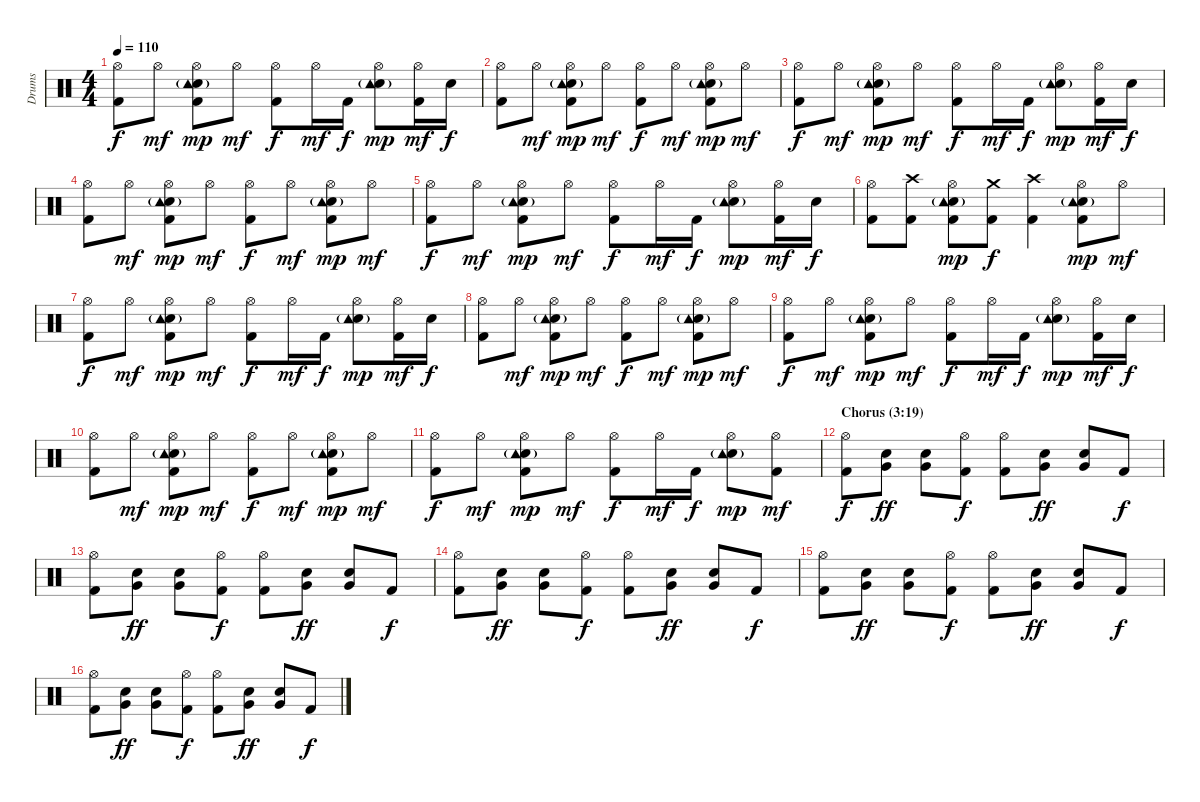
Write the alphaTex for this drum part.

\track ("Drums" "Drums") {instrument percussion}
\staff {score}
\articulation defaults
\ts (4 4)
\tempo 110
\clef neutral
\ks c
("Hi-Hat (open)" "Kick (hit) 2").8{dy f} "Hi-Hat (open)".8{dy mf} ("Hi-Hat (open)" "Snare (hit) 2" "Tambourine (hit)"{g} "Kick (hit) 2").8{dy mp} "Hi-Hat (open)".8{dy mf} ("Hi-Hat (open)" "Kick (hit) 2").8{dy f} "Hi-Hat (open)".16{dy mf} "Kick (hit) 2".16{dy f} ("Hi-Hat (open)" "Snare (hit) 2" "Tambourine (hit)"{g}).8{dy mp} ("Hi-Hat (open)" "Kick (hit) 2").16{dy mf} "Snare (hit) 2".16{dy f} |
("Hi-Hat (open)" "Kick (hit) 2").8 "Hi-Hat (open)".8{dy mf} ("Hi-Hat (open)" "Snare (hit) 2" "Tambourine (hit)"{g} "Kick (hit) 2").8{dy mp} "Hi-Hat (open)".8{dy mf} ("Hi-Hat (open)" "Kick (hit) 2").8{dy f} "Hi-Hat (open)".8{dy mf} ("Hi-Hat (open)" "Snare (hit) 2" "Tambourine (hit)"{g} "Kick (hit) 2").8{dy mp} "Hi-Hat (open)".8{dy mf} |
("Hi-Hat (open)" "Kick (hit) 2").8{dy f} "Hi-Hat (open)".8{dy mf} ("Hi-Hat (open)" "Snare (hit) 2" "Tambourine (hit)"{g} "Kick (hit) 2").8{dy mp} "Hi-Hat (open)".8{dy mf} ("Hi-Hat (open)" "Kick (hit) 2").8{dy f} "Hi-Hat (open)".16{dy mf} "Kick (hit) 2".16{dy f} ("Hi-Hat (open)" "Snare (hit) 2" "Tambourine (hit)"{g}).8{dy mp} ("Hi-Hat (open)" "Kick (hit) 2").16{dy mf} "Snare (hit) 2".16{dy f} |
("Hi-Hat (open)" "Kick (hit) 2").8 "Hi-Hat (open)".8{dy mf} ("Hi-Hat (open)" "Snare (hit) 2" "Tambourine (hit)"{g} "Kick (hit) 2").8{dy mp} "Hi-Hat (open)".8{dy mf} ("Hi-Hat (open)" "Kick (hit) 2").8{dy f} "Hi-Hat (open)".8{dy mf} ("Hi-Hat (open)" "Snare (hit) 2" "Tambourine (hit)"{g} "Kick (hit) 2").8{dy mp} "Hi-Hat (open)".8{dy mf} |
("Hi-Hat (open)" "Kick (hit) 2").8{dy f} "Hi-Hat (open)".8{dy mf} ("Hi-Hat (open)" "Snare (hit) 2" "Tambourine (hit)"{g} "Kick (hit) 2").8{dy mp} "Hi-Hat (open)".8{dy mf} ("Hi-Hat (open)" "Kick (hit) 2").8{dy f} "Hi-Hat (open)".16{dy mf} "Kick (hit) 2".16{dy f} ("Hi-Hat (open)" "Snare (hit) 2" "Tambourine (hit)"{g}).8{dy mp} ("Hi-Hat (open)" "Kick (hit) 2").16{dy mf} "Snare (hit) 2".16{dy f} |
("Hi-Hat (open)" "Kick (hit) 2").8 ("Crash high (hit)" "Kick (hit) 2").8 ("Hi-Hat (open)" "Snare (hit) 2" "Tambourine (hit)"{g} "Kick (hit) 2").8{dy mp} ("Crash medium (hit)" "Kick (hit) 2").8{dy f} ("Crash high (hit)" "Kick (hit) 2").4 ("Hi-Hat (open)" "Snare (hit) 2" "Tambourine (hit)"{g} "Kick (hit) 2").8{dy mp} "Hi-Hat (open)".8{dy mf} |
("Hi-Hat (open)" "Kick (hit) 2").8{dy f} "Hi-Hat (open)".8{dy mf} ("Hi-Hat (open)" "Snare (hit) 2" "Tambourine (hit)"{g} "Kick (hit) 2").8{dy mp} "Hi-Hat (open)".8{dy mf} ("Hi-Hat (open)" "Kick (hit) 2").8{dy f} "Hi-Hat (open)".16{dy mf} "Kick (hit) 2".16{dy f} ("Hi-Hat (open)" "Snare (hit) 2" "Tambourine (hit)"{g}).8{dy mp} ("Hi-Hat (open)" "Kick (hit) 2").16{dy mf} "Snare (hit) 2".16{dy f} |
("Hi-Hat (open)" "Kick (hit) 2").8 "Hi-Hat (open)".8{dy mf} ("Hi-Hat (open)" "Snare (hit) 2" "Tambourine (hit)"{g} "Kick (hit) 2").8{dy mp} "Hi-Hat (open)".8{dy mf} ("Hi-Hat (open)" "Kick (hit) 2").8{dy f} "Hi-Hat (open)".8{dy mf} ("Hi-Hat (open)" "Snare (hit) 2" "Tambourine (hit)"{g} "Kick (hit) 2").8{dy mp} "Hi-Hat (open)".8{dy mf} |
("Hi-Hat (open)" "Kick (hit) 2").8{dy f} "Hi-Hat (open)".8{dy mf} ("Hi-Hat (open)" "Snare (hit) 2" "Tambourine (hit)"{g} "Kick (hit) 2").8{dy mp} "Hi-Hat (open)".8{dy mf} ("Hi-Hat (open)" "Kick (hit) 2").8{dy f} "Hi-Hat (open)".16{dy mf} "Kick (hit) 2".16{dy f} ("Hi-Hat (open)" "Snare (hit) 2" "Tambourine (hit)"{g}).8{dy mp} ("Hi-Hat (open)" "Kick (hit) 2").16{dy mf} "Snare (hit) 2".16{dy f} |
("Hi-Hat (open)" "Kick (hit) 2").8 "Hi-Hat (open)".8{dy mf} ("Hi-Hat (open)" "Snare (hit) 2" "Tambourine (hit)"{g} "Kick (hit) 2").8{dy mp} "Hi-Hat (open)".8{dy mf} ("Hi-Hat (open)" "Kick (hit) 2").8{dy f} "Hi-Hat (open)".8{dy mf} ("Hi-Hat (open)" "Snare (hit) 2" "Tambourine (hit)"{g} "Kick (hit) 2").8{dy mp} "Hi-Hat (open)".8{dy mf} |
("Hi-Hat (open)" "Kick (hit) 2").8{dy f} "Hi-Hat (open)".8{dy mf} ("Hi-Hat (open)" "Snare (hit) 2" "Tambourine (hit)"{g} "Kick (hit) 2").8{dy mp} "Hi-Hat (open)".8{dy mf} ("Hi-Hat (open)" "Kick (hit) 2").8{dy f} "Hi-Hat (open)".16{dy mf} "Kick (hit) 2".16{dy f} ("Hi-Hat (open)" "Snare (hit) 2" "Tambourine (hit)"{g}).8{dy mp} ("Hi-Hat (open)" "Kick (hit) 2").8{dy mf} |
\section ("" "Chorus (3:19)")
("Hi-Hat (open)" "Kick (hit) 2").8{dy f} ("Snare (hit) 2" "Very Low Tom (hit)").8{dy ff} ("Snare (hit) 2" "Very Low Tom (hit)").8 ("Hi-Hat (open)" "Kick (hit) 2").8{dy f} ("Hi-Hat (open)" "Kick (hit) 2").8 ("Snare (hit) 2" "Very Low Tom (hit)").8{dy ff} ("Snare (hit) 2" "Very Low Tom (hit)").8 "Kick (hit) 2".8{dy f} |
("Hi-Hat (open)" "Kick (hit) 2").8 ("Snare (hit) 2" "Very Low Tom (hit)").8{dy ff} ("Snare (hit) 2" "Very Low Tom (hit)").8 ("Hi-Hat (open)" "Kick (hit) 2").8{dy f} ("Hi-Hat (open)" "Kick (hit) 2").8 ("Snare (hit) 2" "Very Low Tom (hit)").8{dy ff} ("Snare (hit) 2" "Very Low Tom (hit)").8 "Kick (hit) 2".8{dy f} |
("Hi-Hat (open)" "Kick (hit) 2").8 ("Snare (hit) 2" "Very Low Tom (hit)").8{dy ff} ("Snare (hit) 2" "Very Low Tom (hit)").8 ("Hi-Hat (open)" "Kick (hit) 2").8{dy f} ("Hi-Hat (open)" "Kick (hit) 2").8 ("Snare (hit) 2" "Very Low Tom (hit)").8{dy ff} ("Snare (hit) 2" "Very Low Tom (hit)").8 "Kick (hit) 2".8{dy f} |
("Hi-Hat (open)" "Kick (hit) 2").8 ("Snare (hit) 2" "Very Low Tom (hit)").8{dy ff} ("Snare (hit) 2" "Very Low Tom (hit)").8 ("Hi-Hat (open)" "Kick (hit) 2").8{dy f} ("Hi-Hat (open)" "Kick (hit) 2").8 ("Snare (hit) 2" "Very Low Tom (hit)").8{dy ff} ("Snare (hit) 2" "Very Low Tom (hit)").8 "Kick (hit) 2".8{dy f} |
("Hi-Hat (open)" "Kick (hit) 2").8 ("Snare (hit) 2" "Very Low Tom (hit)").8{dy ff} ("Snare (hit) 2" "Very Low Tom (hit)").8 ("Hi-Hat (open)" "Kick (hit) 2").8{dy f} ("Hi-Hat (open)" "Kick (hit) 2").8 ("Snare (hit) 2" "Very Low Tom (hit)").8{dy ff} ("Snare (hit) 2" "Very Low Tom (hit)").8 "Kick (hit) 2".8{dy f}
